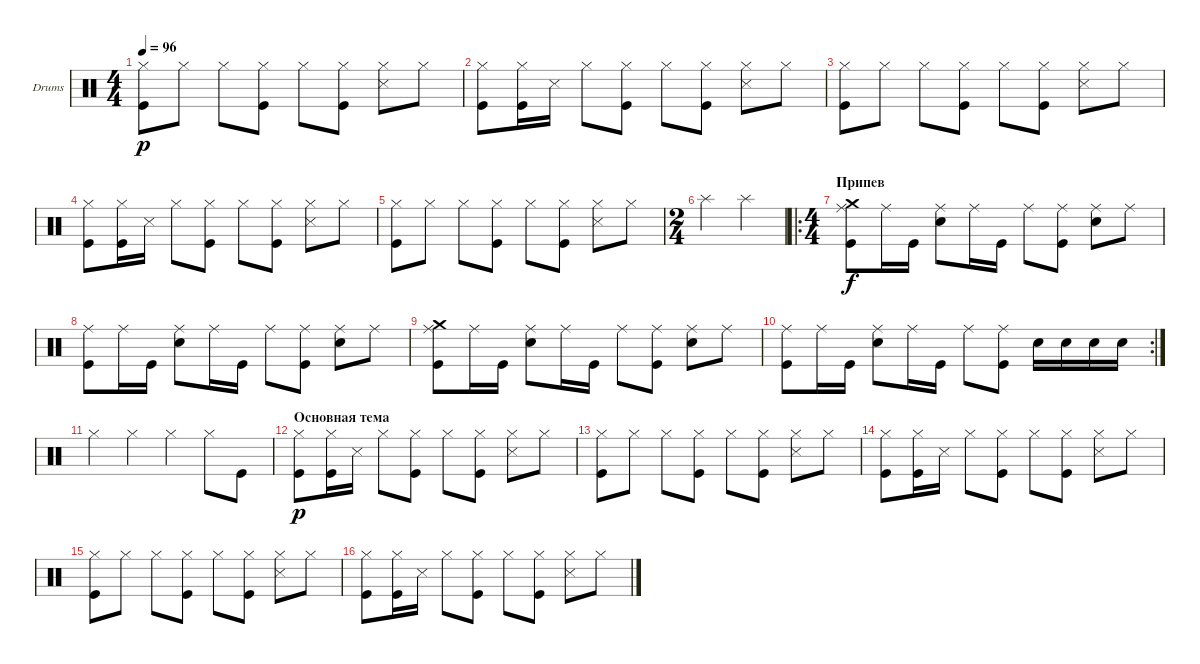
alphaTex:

\defaultSystemsLayout 4
\bracketExtendMode groupsimilarinstruments
\firstSystemTrackNameOrientation horizontal
\otherSystemsTrackNameOrientation horizontal
\track ("Drumkit" "Drums") {instrument percussion}
\staff {score}
\articulation defaults
\ts (4 4)
\tempo 96
\clef neutral
\ks c
("Hi-Hat (closed)" "Kick (hit)").8{dy p} "Hi-Hat (closed)".8 "Hi-Hat (closed)".8 ("Hi-Hat (closed)" "Kick (hit)").8 "Hi-Hat (closed)".8 ("Hi-Hat (closed)" "Kick (hit)").8 ("Hi-Hat (closed)" "Snare (side stick) 3").8 "Hi-Hat (closed)".8 |
("Hi-Hat (closed)" "Kick (hit)").8 ("Hi-Hat (closed)" "Kick (hit)").16 "Snare (side stick) 3".16 "Hi-Hat (closed)".8 ("Hi-Hat (closed)" "Kick (hit)").8 "Hi-Hat (closed)".8 ("Hi-Hat (closed)" "Kick (hit)").8 ("Hi-Hat (closed)" "Snare (side stick) 3").8 "Hi-Hat (closed)".8 |
("Hi-Hat (closed)" "Kick (hit)").8 "Hi-Hat (closed)".8 "Hi-Hat (closed)".8 ("Hi-Hat (closed)" "Kick (hit)").8 "Hi-Hat (closed)".8 ("Hi-Hat (closed)" "Kick (hit)").8 ("Hi-Hat (closed)" "Snare (side stick) 3").8 "Hi-Hat (closed)".8 |
("Hi-Hat (closed)" "Kick (hit)").8 ("Hi-Hat (closed)" "Kick (hit)").16 "Snare (side stick) 3".16 "Hi-Hat (closed)".8 ("Hi-Hat (closed)" "Kick (hit)").8 "Hi-Hat (closed)".8 ("Hi-Hat (closed)" "Kick (hit)").8 ("Hi-Hat (closed)" "Snare (side stick) 3").8 "Hi-Hat (closed)".8 |
("Hi-Hat (closed)" "Kick (hit)").8 "Hi-Hat (closed)".8 "Hi-Hat (closed)".8 ("Hi-Hat (closed)" "Kick (hit)").8 "Hi-Hat (closed)".8 ("Hi-Hat (closed)" "Kick (hit)").8 ("Hi-Hat (closed)" "Snare (side stick) 3").8 "Hi-Hat (closed)".8 |
\ts (2 4)
"Splash (hit)".4 "Splash (hit)".4 |
\ro
\ts (4 4)
\section ("" "Припев")
("Crash medium (hit)" "Ride (middle)" "Kick (hit)").8{dy f} "Ride (middle)".16 "Kick (hit)".16 ("Ride (middle)" "Snare (hit) 2").8 "Ride (middle)".16 "Kick (hit)".16 "Ride (middle)".8 ("Ride (middle)" "Kick (hit)").8 ("Ride (middle)" "Snare (hit) 2").8 "Ride (middle)".8 |
("Ride (middle)" "Kick (hit)").8 "Ride (middle)".16 "Kick (hit)".16 ("Ride (middle)" "Snare (hit) 2").8 "Ride (middle)".16 "Kick (hit)".16 "Ride (middle)".8 ("Ride (middle)" "Kick (hit)").8 ("Ride (middle)" "Snare (hit) 2").8 "Ride (middle)".8 |
("Crash medium (hit)" "Ride (middle)" "Kick (hit)").8 "Ride (middle)".16 "Kick (hit)".16 ("Ride (middle)" "Snare (hit) 2").8 "Ride (middle)".16 "Kick (hit)".16 "Ride (middle)".8 ("Ride (middle)" "Kick (hit)").8 ("Ride (middle)" "Snare (hit) 2").8 "Ride (middle)".8 |
\rc 2
("Ride (middle)" "Kick (hit)").8 "Ride (middle)".16 "Kick (hit)".16 ("Ride (middle)" "Snare (hit) 2").8 "Ride (middle)".16 "Kick (hit)".16 "Ride (middle)".8 ("Ride (middle)" "Kick (hit)").8 "Snare (hit) 2".16 "Snare (hit) 2".16 "Snare (hit) 2".16 "Snare (hit) 2".16 |
"Hi-Hat (closed)".4 "Hi-Hat (closed)".4 "Hi-Hat (closed)".4 "Hi-Hat (closed)".8 "Kick (hit)".8 |
\section ("" "Основная тема")
("Hi-Hat (closed)" "Kick (hit)").8{dy p} ("Hi-Hat (closed)" "Kick (hit)").16 "Snare (side stick) 3".16 "Hi-Hat (closed)".8 ("Hi-Hat (closed)" "Kick (hit)").8 "Hi-Hat (closed)".8 ("Hi-Hat (closed)" "Kick (hit)").8 ("Hi-Hat (closed)" "Snare (side stick) 3").8 "Hi-Hat (closed)".8 |
("Hi-Hat (closed)" "Kick (hit)").8 "Hi-Hat (closed)".8 "Hi-Hat (closed)".8 ("Hi-Hat (closed)" "Kick (hit)").8 "Hi-Hat (closed)".8 ("Hi-Hat (closed)" "Kick (hit)").8 ("Hi-Hat (closed)" "Snare (side stick) 3").8 "Hi-Hat (closed)".8 |
("Hi-Hat (closed)" "Kick (hit)").8 ("Hi-Hat (closed)" "Kick (hit)").16 "Snare (side stick) 3".16 "Hi-Hat (closed)".8 ("Hi-Hat (closed)" "Kick (hit)").8 "Hi-Hat (closed)".8 ("Hi-Hat (closed)" "Kick (hit)").8 ("Hi-Hat (closed)" "Snare (side stick) 3").8 "Hi-Hat (closed)".8 |
("Hi-Hat (closed)" "Kick (hit)").8 "Hi-Hat (closed)".8 "Hi-Hat (closed)".8 ("Hi-Hat (closed)" "Kick (hit)").8 "Hi-Hat (closed)".8 ("Hi-Hat (closed)" "Kick (hit)").8 ("Hi-Hat (closed)" "Snare (side stick) 3").8 "Hi-Hat (closed)".8 |
("Hi-Hat (closed)" "Kick (hit)").8 ("Hi-Hat (closed)" "Kick (hit)").16 "Snare (side stick) 3".16 "Hi-Hat (closed)".8 ("Hi-Hat (closed)" "Kick (hit)").8 "Hi-Hat (closed)".8 ("Hi-Hat (closed)" "Kick (hit)").8 ("Hi-Hat (closed)" "Snare (side stick) 3").8 "Hi-Hat (closed)".8
